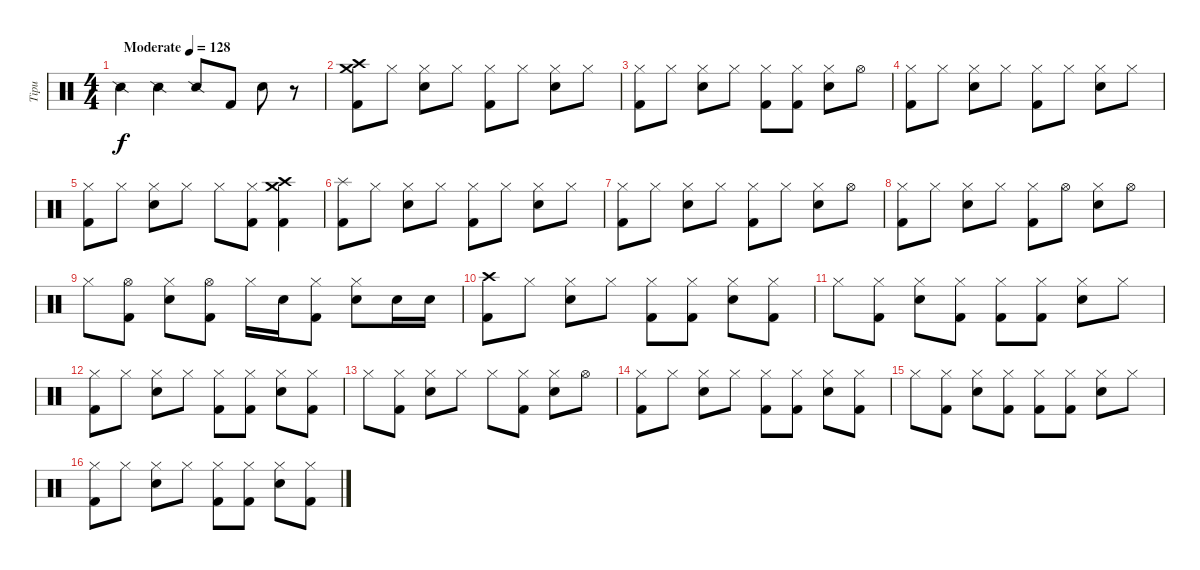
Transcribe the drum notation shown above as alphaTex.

\track ("Tipu" "Tipu") {instrument percussion}
\staff {score}
\articulation defaults
\ts (4 4)
\tempo (128 "Moderate")
\clef neutral
\ks c "Snare (side stick) 2".4{dy f} "Snare (side stick) 2".4 "Snare (side stick) 2".8 "Kick (hit) 2".8 "Electric Snare (hit)".8
r.8 |
("Crash high (hit)" "Crash medium (hit)" "Kick (hit) 2").8 "Hi-Hat (closed)".8 ("Hi-Hat (closed)" "Electric Snare (hit)").8 "Hi-Hat (closed)".8 ("Hi-Hat (closed)" "Kick (hit) 2").8 "Hi-Hat (closed)".8 ("Hi-Hat (closed)" "Electric Snare (hit)").8 "Hi-Hat (closed)".8 |
("Hi-Hat (closed)" "Kick (hit) 2").8 "Hi-Hat (closed)".8 ("Hi-Hat (closed)" "Electric Snare (hit)").8 "Hi-Hat (closed)".8 ("Hi-Hat (closed)" "Kick (hit) 2").8 ("Hi-Hat (closed)" "Kick (hit) 2").8 ("Hi-Hat (closed)" "Electric Snare (hit)").8 "Hi-Hat (open)".8 |
("Hi-Hat (closed)" "Kick (hit) 2").8 "Hi-Hat (closed)".8 ("Hi-Hat (closed)" "Electric Snare (hit)").8 "Hi-Hat (closed)".8 ("Hi-Hat (closed)" "Kick (hit) 2").8 "Hi-Hat (closed)".8 ("Hi-Hat (closed)" "Electric Snare (hit)").8 "Hi-Hat (closed)".8 |
("Hi-Hat (closed)" "Kick (hit) 2").8 "Hi-Hat (closed)".8 ("Hi-Hat (closed)" "Electric Snare (hit)").8 "Hi-Hat (closed)".8 "Hi-Hat (closed)".8 ("Hi-Hat (closed)" "Kick (hit) 2").8 ("Crash medium (hit)" "Crash high (hit)" "Kick (hit) 2").4 |
("Splash (hit)" "Kick (hit) 2").8 "Hi-Hat (closed)".8 ("Hi-Hat (closed)" "Electric Snare (hit)").8 "Hi-Hat (closed)".8 ("Hi-Hat (closed)" "Kick (hit) 2").8 "Hi-Hat (closed)".8 ("Hi-Hat (closed)" "Electric Snare (hit)").8 "Hi-Hat (closed)".8 |
("Hi-Hat (closed)" "Kick (hit) 2").8 "Hi-Hat (closed)".8 ("Hi-Hat (closed)" "Electric Snare (hit)").8 "Hi-Hat (closed)".8 ("Hi-Hat (closed)" "Kick (hit) 2").8 "Hi-Hat (closed)".8 ("Hi-Hat (closed)" "Electric Snare (hit)").8 "Hi-Hat (open)".8 |
("Hi-Hat (closed)" "Kick (hit) 2").8 "Hi-Hat (closed)".8 ("Hi-Hat (closed)" "Electric Snare (hit)").8 "Hi-Hat (closed)".8 ("Hi-Hat (closed)" "Kick (hit) 2").8 "Hi-Hat (open)".8 ("Hi-Hat (closed)" "Electric Snare (hit)").8 "Hi-Hat (open)".8 |
"Hi-Hat (closed)".8 ("Hi-Hat (open)" "Kick (hit) 2").8 ("Hi-Hat (closed)" "Electric Snare (hit)").8 ("Hi-Hat (open)" "Kick (hit) 2").8 "Hi-Hat (closed)".16 "Electric Snare (hit)".16 ("Hi-Hat (closed)" "Kick (hit) 2").8 ("Hi-Hat (closed)" "Electric Snare (hit)").8 "Electric Snare (hit)".16 "Electric Snare (hit)".16 |
("Crash high (hit)" "Kick (hit) 2").8 "Hi-Hat (closed)".8 ("Hi-Hat (closed)" "Electric Snare (hit)").8 "Hi-Hat (closed)".8 ("Hi-Hat (closed)" "Kick (hit) 2").8 ("Hi-Hat (closed)" "Kick (hit) 2").8 ("Hi-Hat (closed)" "Electric Snare (hit)").8 ("Hi-Hat (closed)" "Kick (hit) 2").8 |
"Hi-Hat (closed)".8 ("Hi-Hat (closed)" "Kick (hit) 2").8 ("Hi-Hat (closed)" "Electric Snare (hit)").8 ("Hi-Hat (closed)" "Kick (hit) 2").8 ("Hi-Hat (closed)" "Kick (hit) 2").8 ("Hi-Hat (closed)" "Kick (hit) 2").8 ("Hi-Hat (closed)" "Electric Snare (hit)").8 "Hi-Hat (closed)".8 |
("Hi-Hat (closed)" "Kick (hit) 2").8 "Hi-Hat (closed)".8 ("Hi-Hat (closed)" "Electric Snare (hit)").8 "Hi-Hat (closed)".8 ("Hi-Hat (closed)" "Kick (hit) 2").8 ("Hi-Hat (closed)" "Kick (hit) 2").8 ("Hi-Hat (closed)" "Electric Snare (hit)").8 ("Hi-Hat (closed)" "Kick (hit) 2").8 |
"Hi-Hat (closed)".8 ("Hi-Hat (closed)" "Kick (hit) 2").8 ("Hi-Hat (closed)" "Electric Snare (hit)").8 "Hi-Hat (closed)".8 "Hi-Hat (closed)".8 ("Hi-Hat (closed)" "Kick (hit) 2").8 ("Hi-Hat (closed)" "Electric Snare (hit)").8 "Hi-Hat (open)".8 |
("Hi-Hat (closed)" "Kick (hit) 2").8 "Hi-Hat (closed)".8 ("Hi-Hat (closed)" "Electric Snare (hit)").8 "Hi-Hat (closed)".8 ("Hi-Hat (closed)" "Kick (hit) 2").8 ("Hi-Hat (closed)" "Kick (hit) 2").8 ("Hi-Hat (closed)" "Electric Snare (hit)").8 ("Hi-Hat (closed)" "Kick (hit) 2").8 |
"Hi-Hat (closed)".8 ("Hi-Hat (closed)" "Kick (hit) 2").8 ("Hi-Hat (closed)" "Electric Snare (hit)").8 ("Hi-Hat (closed)" "Kick (hit) 2").8 ("Hi-Hat (closed)" "Kick (hit) 2").8 ("Hi-Hat (closed)" "Kick (hit) 2").8 ("Hi-Hat (closed)" "Electric Snare (hit)").8 "Hi-Hat (closed)".8 |
("Hi-Hat (closed)" "Kick (hit) 2").8 "Hi-Hat (closed)".8 ("Hi-Hat (closed)" "Electric Snare (hit)").8 "Hi-Hat (closed)".8 ("Hi-Hat (closed)" "Kick (hit) 2").8 ("Hi-Hat (closed)" "Kick (hit) 2").8 ("Hi-Hat (closed)" "Electric Snare (hit)").8 ("Hi-Hat (closed)" "Kick (hit) 2").8
